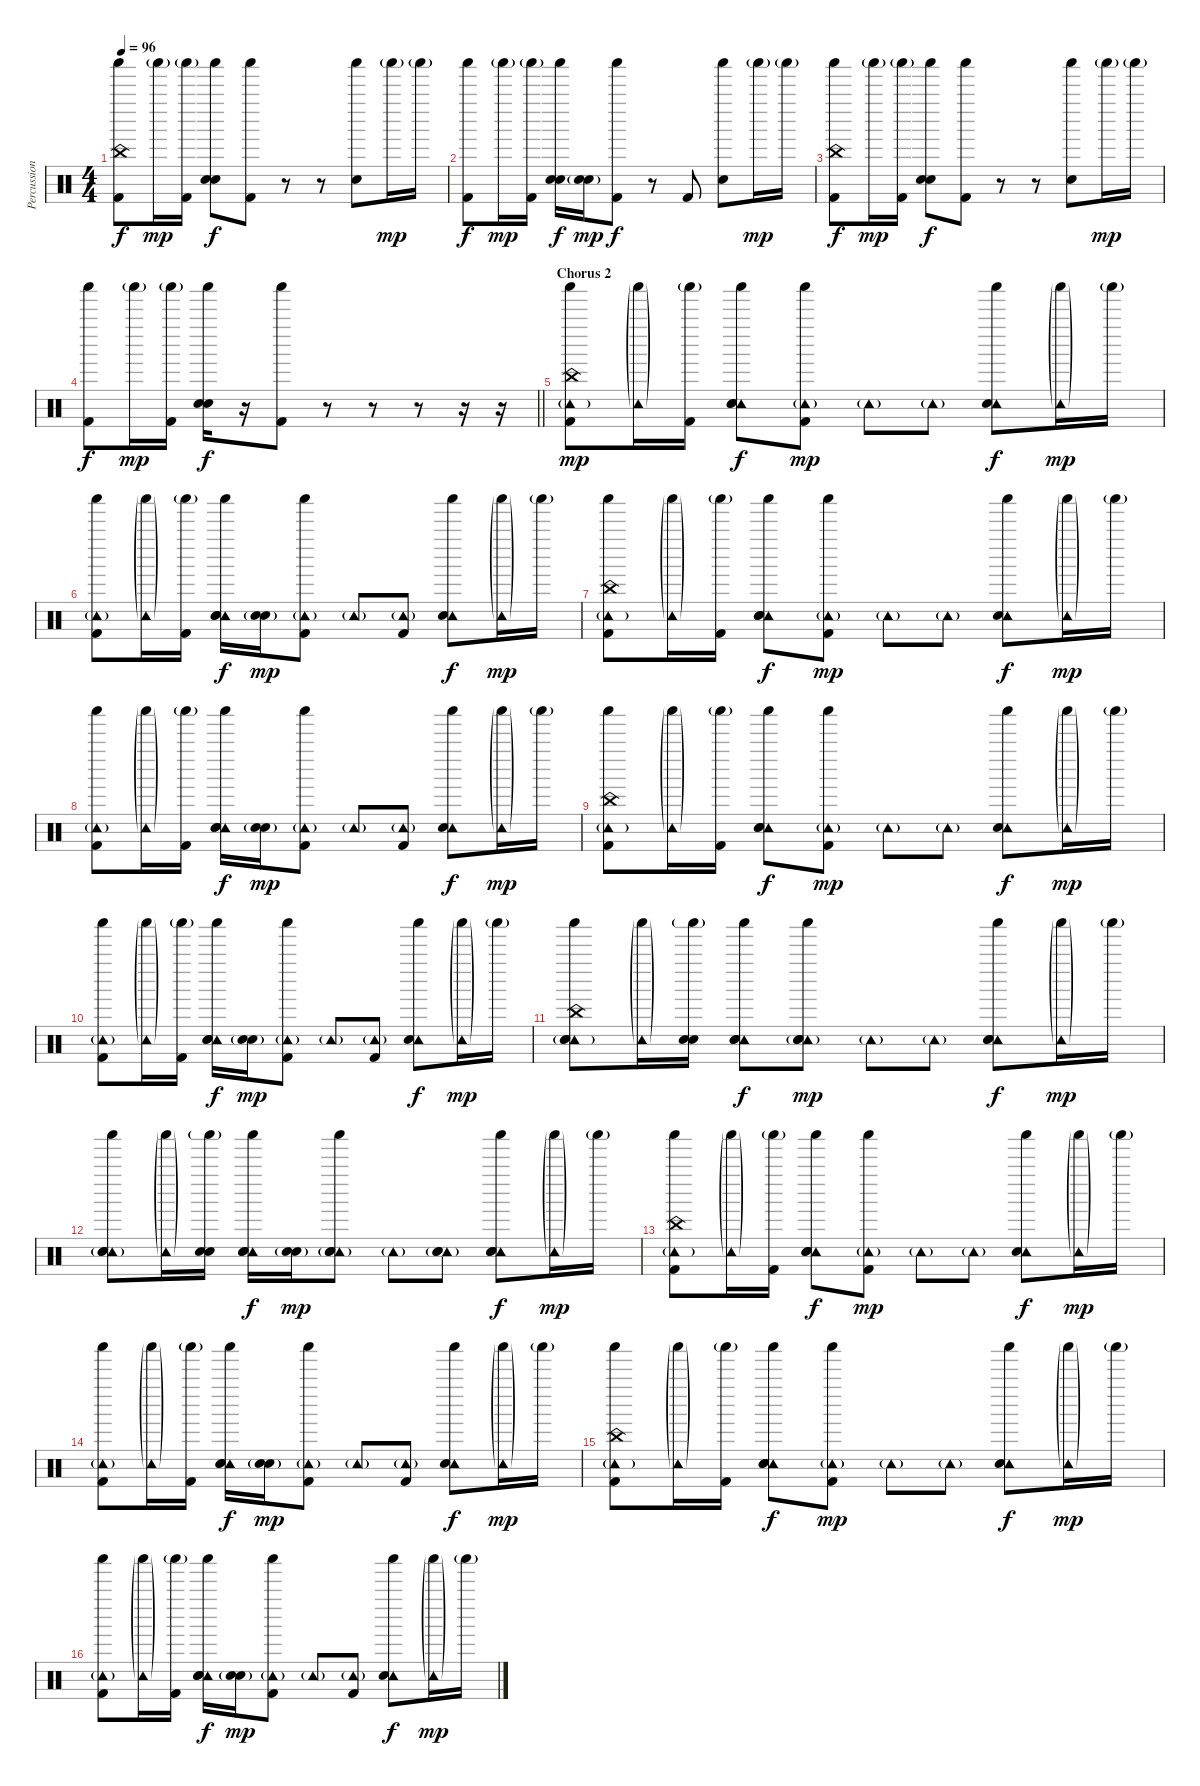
\track ("Percussion" "Percussion") {instrument percussion}
\staff {score}
\articulation defaults
\ts (4 4)
\tempo 96
\clef neutral
\ks c
("China (hit)" "Shaker (hit)" "Kick (hit) 2").8{dy f} "Shaker (hit)"{g}.16{dy mp} ("Shaker (hit)"{g} "Kick (hit) 2").16 ("Shaker (hit)" "Hand Clap (hit)" "Electric Snare (hit)").8{dy f} ("Shaker (hit)" "Kick (hit) 2").8 r.8 r.8 ("Shaker (hit)" "Electric Snare (hit)").8 "Shaker (hit)"{g}.16{dy mp} "Shaker (hit)"{g}.16 |
("Shaker (hit)" "Kick (hit) 2").8{dy f} "Shaker (hit)"{g}.16{dy mp} ("Shaker (hit)"{g} "Kick (hit) 2").16 ("Shaker (hit)" "Hand Clap (hit)" "Electric Snare (hit)").16{dy f} ("Hand Clap (hit)"{g} "Electric Snare (hit)"{g}).16{dy mp} ("Shaker (hit)" "Kick (hit) 2").8{dy f} r.8 "Kick (hit) 2".8 ("Shaker (hit)" "Electric Snare (hit)").8 "Shaker (hit)"{g}.16{dy mp} "Shaker (hit)"{g}.16 |
("China (hit)" "Shaker (hit)" "Kick (hit) 2").8{dy f} "Shaker (hit)"{g}.16{dy mp} ("Shaker (hit)"{g} "Kick (hit) 2").16 ("Shaker (hit)" "Hand Clap (hit)" "Electric Snare (hit)").8{dy f} ("Shaker (hit)" "Kick (hit) 2").8 r.8 r.8 ("Shaker (hit)" "Electric Snare (hit)").8 "Shaker (hit)"{g}.16{dy mp} "Shaker (hit)"{g}.16 |
\barLineRight lightlight
("Shaker (hit)" "Kick (hit) 2").8{dy f} "Shaker (hit)"{g}.16{dy mp} ("Shaker (hit)"{g} "Kick (hit) 2").16 ("Shaker (hit)" "Hand Clap (hit)" "Electric Snare (hit)").16{dy f} r.16 ("Shaker (hit)" "Kick (hit) 2").8 r.8 r.8 r.8 r.16 r.16 |
\section ("" "Chorus 2")
("China (hit)" "Shaker (hit)" "Tambourine (hit)"{g} "Kick (hit) 2").8{dy mp} ("Shaker (hit)"{g} "Tambourine (hit)"{g}).16 ("Shaker (hit)"{g} "Kick (hit) 2").16 ("Shaker (hit)" "Tambourine (hit)" "Hand Clap (hit)" "Electric Snare (hit)").8{dy f} ("Shaker (hit)" "Tambourine (hit)"{g} "Kick (hit) 2").8{dy mp} "Tambourine (hit)"{g}.8 "Tambourine (hit)"{g}.8 ("Shaker (hit)" "Tambourine (hit)" "Electric Snare (hit)").8{dy f} ("Shaker (hit)"{g} "Tambourine (hit)"{g}).16{dy mp} "Shaker (hit)"{g}.16 |
("Shaker (hit)" "Tambourine (hit)"{g} "Kick (hit) 2").8 ("Shaker (hit)"{g} "Tambourine (hit)"{g}).16 ("Shaker (hit)"{g} "Kick (hit) 2").16 ("Shaker (hit)" "Tambourine (hit)" "Hand Clap (hit)" "Electric Snare (hit)").16{dy f} ("Hand Clap (hit)"{g} "Electric Snare (hit)"{g}).16{dy mp} ("Shaker (hit)" "Tambourine (hit)"{g} "Kick (hit) 2").8 "Tambourine (hit)"{g}.8 ("Tambourine (hit)"{g} "Kick (hit) 2").8 ("Shaker (hit)" "Tambourine (hit)" "Electric Snare (hit)").8{dy f} ("Shaker (hit)"{g} "Tambourine (hit)"{g}).16{dy mp} "Shaker (hit)"{g}.16 |
("China (hit)" "Shaker (hit)" "Tambourine (hit)"{g} "Kick (hit) 2").8 ("Shaker (hit)"{g} "Tambourine (hit)"{g}).16 ("Shaker (hit)"{g} "Kick (hit) 2").16 ("Shaker (hit)" "Tambourine (hit)" "Hand Clap (hit)" "Electric Snare (hit)").8{dy f} ("Shaker (hit)" "Tambourine (hit)"{g} "Kick (hit) 2").8{dy mp} "Tambourine (hit)"{g}.8 "Tambourine (hit)"{g}.8 ("Shaker (hit)" "Tambourine (hit)" "Electric Snare (hit)").8{dy f} ("Shaker (hit)"{g} "Tambourine (hit)"{g}).16{dy mp} "Shaker (hit)"{g}.16 |
("Shaker (hit)" "Tambourine (hit)"{g} "Kick (hit) 2").8 ("Shaker (hit)"{g} "Tambourine (hit)"{g}).16 ("Shaker (hit)"{g} "Kick (hit) 2").16 ("Shaker (hit)" "Tambourine (hit)" "Hand Clap (hit)" "Electric Snare (hit)").16{dy f} ("Hand Clap (hit)"{g} "Electric Snare (hit)"{g}).16{dy mp} ("Shaker (hit)" "Tambourine (hit)"{g} "Kick (hit) 2").8 "Tambourine (hit)"{g}.8 ("Tambourine (hit)"{g} "Kick (hit) 2").8 ("Shaker (hit)" "Tambourine (hit)" "Electric Snare (hit)").8{dy f} ("Shaker (hit)"{g} "Tambourine (hit)"{g}).16{dy mp} "Shaker (hit)"{g}.16 |
("China (hit)" "Shaker (hit)" "Tambourine (hit)"{g} "Kick (hit) 2").8 ("Shaker (hit)"{g} "Tambourine (hit)"{g}).16 ("Shaker (hit)"{g} "Kick (hit) 2").16 ("Shaker (hit)" "Tambourine (hit)" "Hand Clap (hit)" "Electric Snare (hit)").8{dy f} ("Shaker (hit)" "Tambourine (hit)"{g} "Kick (hit) 2").8{dy mp} "Tambourine (hit)"{g}.8 "Tambourine (hit)"{g}.8 ("Shaker (hit)" "Tambourine (hit)" "Electric Snare (hit)").8{dy f} ("Shaker (hit)"{g} "Tambourine (hit)"{g}).16{dy mp} "Shaker (hit)"{g}.16 |
("Shaker (hit)" "Tambourine (hit)"{g} "Kick (hit) 2").8 ("Shaker (hit)"{g} "Tambourine (hit)"{g}).16 ("Shaker (hit)"{g} "Kick (hit) 2").16 ("Shaker (hit)" "Tambourine (hit)" "Hand Clap (hit)" "Electric Snare (hit)").16{dy f} ("Hand Clap (hit)"{g} "Electric Snare (hit)"{g}).16{dy mp} ("Shaker (hit)" "Tambourine (hit)"{g} "Kick (hit) 2").8 "Tambourine (hit)"{g}.8 ("Tambourine (hit)"{g} "Kick (hit) 2").8 ("Shaker (hit)" "Tambourine (hit)" "Electric Snare (hit)").8{dy f} ("Shaker (hit)"{g} "Tambourine (hit)"{g}).16{dy mp} "Shaker (hit)"{g}.16 |
("China (hit)" "Shaker (hit)" "Tambourine (hit)"{g} "Snare (hit) 2" "Electric Snare (hit)").8 ("Shaker (hit)"{g} "Tambourine (hit)"{g}).16 ("Shaker (hit)"{g} "Snare (hit) 2" "Electric Snare (hit)").16 ("Shaker (hit)" "Tambourine (hit)" "Hand Clap (hit)" "Electric Snare (hit)").8{dy f} ("Shaker (hit)" "Tambourine (hit)"{g} "Snare (hit) 2" "Electric Snare (hit)").8{dy mp} "Tambourine (hit)"{g}.8 "Tambourine (hit)"{g}.8 ("Shaker (hit)" "Tambourine (hit)" "Snare (hit) 2" "Electric Snare (hit)").8{dy f} ("Shaker (hit)"{g} "Tambourine (hit)"{g}).16{dy mp} "Shaker (hit)"{g}.16 |
("Shaker (hit)" "Tambourine (hit)"{g} "Snare (hit) 2" "Electric Snare (hit)").8 ("Shaker (hit)"{g} "Tambourine (hit)"{g}).16 ("Shaker (hit)"{g} "Snare (hit) 2" "Electric Snare (hit)").16 ("Shaker (hit)" "Tambourine (hit)" "Hand Clap (hit)" "Electric Snare (hit)").16{dy f} ("Hand Clap (hit)"{g} "Electric Snare (hit)"{g}).16{dy mp} ("Shaker (hit)" "Tambourine (hit)"{g} "Snare (hit) 2" "Electric Snare (hit)").8 "Tambourine (hit)"{g}.8 ("Tambourine (hit)"{g} "Snare (hit) 2" "Electric Snare (hit)").8 ("Shaker (hit)" "Tambourine (hit)" "Snare (hit) 2" "Electric Snare (hit)").8{dy f} ("Shaker (hit)"{g} "Tambourine (hit)"{g}).16{dy mp} "Shaker (hit)"{g}.16 |
("China (hit)" "Shaker (hit)" "Tambourine (hit)"{g} "Kick (hit) 2").8 ("Shaker (hit)"{g} "Tambourine (hit)"{g}).16 ("Shaker (hit)"{g} "Kick (hit) 2").16 ("Shaker (hit)" "Tambourine (hit)" "Hand Clap (hit)" "Electric Snare (hit)").8{dy f} ("Shaker (hit)" "Tambourine (hit)"{g} "Kick (hit) 2").8{dy mp} "Tambourine (hit)"{g}.8 "Tambourine (hit)"{g}.8 ("Shaker (hit)" "Tambourine (hit)" "Electric Snare (hit)").8{dy f} ("Shaker (hit)"{g} "Tambourine (hit)"{g}).16{dy mp} "Shaker (hit)"{g}.16 |
("Shaker (hit)" "Tambourine (hit)"{g} "Kick (hit) 2").8 ("Shaker (hit)"{g} "Tambourine (hit)"{g}).16 ("Shaker (hit)"{g} "Kick (hit) 2").16 ("Shaker (hit)" "Tambourine (hit)" "Hand Clap (hit)" "Electric Snare (hit)").16{dy f} ("Hand Clap (hit)"{g} "Electric Snare (hit)"{g}).16{dy mp} ("Shaker (hit)" "Tambourine (hit)"{g} "Kick (hit) 2").8 "Tambourine (hit)"{g}.8 ("Tambourine (hit)"{g} "Kick (hit) 2").8 ("Shaker (hit)" "Tambourine (hit)" "Electric Snare (hit)").8{dy f} ("Shaker (hit)"{g} "Tambourine (hit)"{g}).16{dy mp} "Shaker (hit)"{g}.16 |
("China (hit)" "Shaker (hit)" "Tambourine (hit)"{g} "Kick (hit) 2").8 ("Shaker (hit)"{g} "Tambourine (hit)"{g}).16 ("Shaker (hit)"{g} "Kick (hit) 2").16 ("Shaker (hit)" "Tambourine (hit)" "Hand Clap (hit)" "Electric Snare (hit)").8{dy f} ("Shaker (hit)" "Tambourine (hit)"{g} "Kick (hit) 2").8{dy mp} "Tambourine (hit)"{g}.8 "Tambourine (hit)"{g}.8 ("Shaker (hit)" "Tambourine (hit)" "Electric Snare (hit)").8{dy f} ("Shaker (hit)"{g} "Tambourine (hit)"{g}).16{dy mp} "Shaker (hit)"{g}.16 |
("Shaker (hit)" "Tambourine (hit)"{g} "Kick (hit) 2").8 ("Shaker (hit)"{g} "Tambourine (hit)"{g}).16 ("Shaker (hit)"{g} "Kick (hit) 2").16 ("Shaker (hit)" "Tambourine (hit)" "Hand Clap (hit)" "Electric Snare (hit)").16{dy f} ("Hand Clap (hit)"{g} "Electric Snare (hit)"{g}).16{dy mp} ("Shaker (hit)" "Tambourine (hit)"{g} "Kick (hit) 2").8 "Tambourine (hit)"{g}.8 ("Tambourine (hit)"{g} "Kick (hit) 2").8 ("Shaker (hit)" "Tambourine (hit)" "Electric Snare (hit)").8{dy f} ("Shaker (hit)"{g} "Tambourine (hit)"{g}).16{dy mp} "Shaker (hit)"{g}.16
